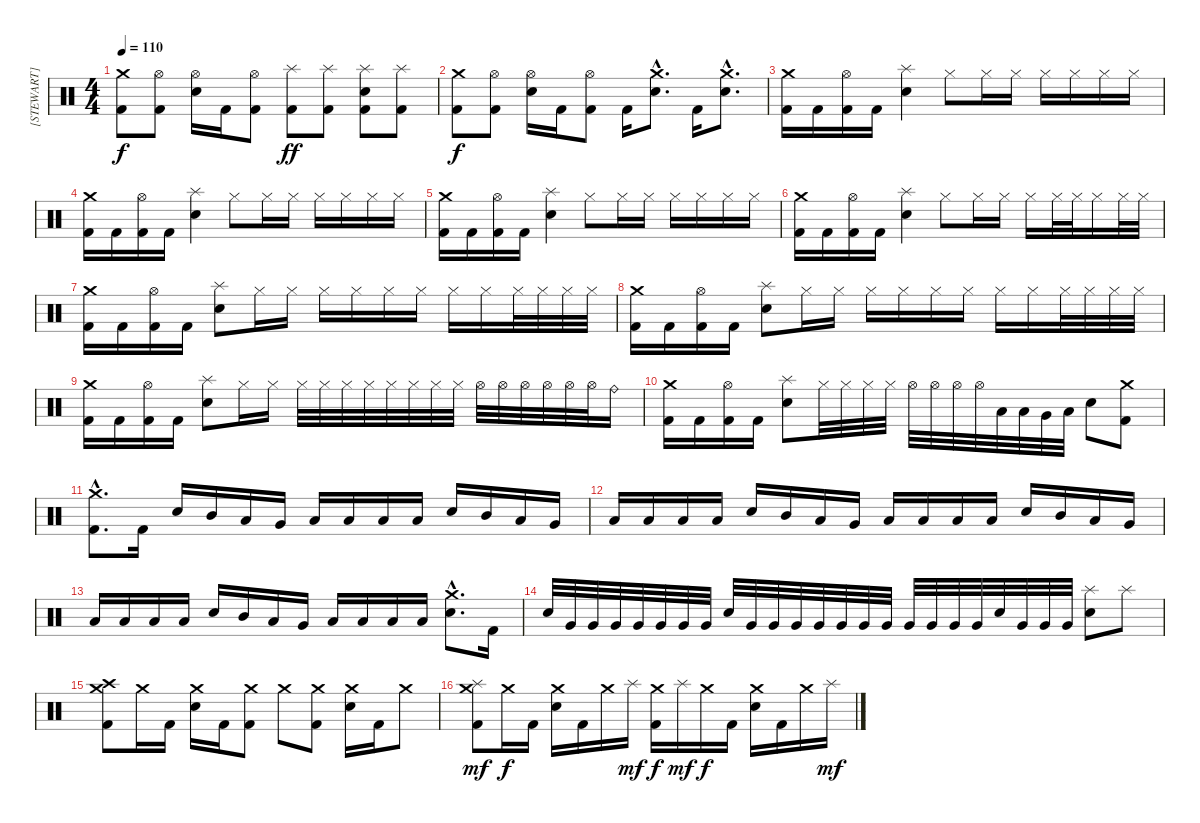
\track ("[STEWART]" "[STEWART]") {instrument percussion}
\staff {score}
\articulation defaults
\ts (4 4)
\tempo 110
\clef neutral
\ks c
("Crash medium (hit)" "Kick (hit) 2").8{dy f} ("Hi-Hat (open)" "Kick (hit) 2").8 ("Hi-Hat (open)" "Electric Snare (hit)").16 "Kick (hit) 2".16 ("Hi-Hat (open)" "Kick (hit) 2").8 ("Splash (hit)" "Kick (hit) 2").8{dy ff} ("Splash (hit)" "Kick (hit) 2").8 ("Splash (hit)" "Electric Snare (hit)" "Kick (hit) 2").8 ("Splash (hit)" "Kick (hit) 2").8 |
("Crash medium (hit)" "Kick (hit) 2").8{dy f} ("Hi-Hat (open)" "Kick (hit) 2").8 ("Hi-Hat (open)" "Electric Snare (hit)").16 "Kick (hit) 2".16 ("Hi-Hat (open)" "Kick (hit) 2").8 "Kick (hit) 2".16 ("Crash medium (hit)"{hac} "Electric Snare (hit)"{hac}).8{d} "Kick (hit) 2".16 ("Crash medium (hit)"{hac} "Electric Snare (hit)"{hac}).8{d} |
("Crash medium (hit)" "Kick (hit) 2").16 "Kick (hit) 2".16 ("Hi-Hat (open)" "Kick (hit) 2").16 "Kick (hit) 2".16 ("Splash (hit)" "Electric Snare (hit)").4 "Hi-Hat (closed)".8 "Hi-Hat (closed)".16 "Hi-Hat (closed)".16 "Hi-Hat (closed)".16 "Hi-Hat (closed)".16 "Hi-Hat (closed)".16 "Hi-Hat (closed)".16 |
("Crash medium (hit)" "Kick (hit) 2").16 "Kick (hit) 2".16 ("Hi-Hat (open)" "Kick (hit) 2").16 "Kick (hit) 2".16 ("Splash (hit)" "Electric Snare (hit)").4 "Hi-Hat (closed)".8 "Hi-Hat (closed)".16 "Hi-Hat (closed)".16 "Hi-Hat (closed)".16 "Hi-Hat (closed)".16 "Hi-Hat (closed)".16 "Hi-Hat (closed)".16 |
("Crash medium (hit)" "Kick (hit) 2").16 "Kick (hit) 2".16 ("Hi-Hat (open)" "Kick (hit) 2").16 "Kick (hit) 2".16 ("Splash (hit)" "Electric Snare (hit)").4 "Hi-Hat (closed)".8 "Hi-Hat (closed)".16 "Hi-Hat (closed)".16 "Hi-Hat (closed)".16 "Hi-Hat (closed)".16 "Hi-Hat (closed)".16 "Hi-Hat (closed)".16 |
("Crash medium (hit)" "Kick (hit) 2").16 "Kick (hit) 2".16 ("Hi-Hat (open)" "Kick (hit) 2").16 "Kick (hit) 2".16 ("Splash (hit)" "Electric Snare (hit)").4 "Hi-Hat (closed)".8 "Hi-Hat (closed)".16 "Hi-Hat (closed)".16 "Hi-Hat (closed)".16 "Hi-Hat (closed)".32 "Hi-Hat (closed)".32 "Hi-Hat (closed)".16 "Hi-Hat (closed)".32 "Hi-Hat (closed)".32 |
("Crash medium (hit)" "Kick (hit) 2").16 "Kick (hit) 2".16 ("Hi-Hat (open)" "Kick (hit) 2").16 "Kick (hit) 2".16 ("Splash (hit)" "Electric Snare (hit)").8 "Hi-Hat (closed)".16 "Hi-Hat (closed)".16 "Hi-Hat (closed)".16 "Hi-Hat (closed)".16 "Hi-Hat (closed)".16 "Hi-Hat (closed)".16 "Hi-Hat (closed)".16 "Hi-Hat (closed)".16 "Hi-Hat (closed)".32 "Hi-Hat (closed)".32 "Hi-Hat (closed)".32 "Hi-Hat (closed)".32 |
("Crash medium (hit)" "Kick (hit) 2").16 "Kick (hit) 2".16 ("Hi-Hat (open)" "Kick (hit) 2").16 "Kick (hit) 2".16 ("Splash (hit)" "Electric Snare (hit)").8 "Hi-Hat (closed)".16 "Hi-Hat (closed)".16 "Hi-Hat (closed)".16 "Hi-Hat (closed)".16 "Hi-Hat (closed)".16 "Hi-Hat (closed)".16 "Hi-Hat (closed)".16 "Hi-Hat (closed)".16 "Hi-Hat (closed)".32 "Hi-Hat (closed)".32 "Hi-Hat (closed)".32 "Hi-Hat (closed)".32 |
("Crash medium (hit)" "Kick (hit) 2").16 "Kick (hit) 2".16 ("Hi-Hat (open)" "Kick (hit) 2").16 "Kick (hit) 2".16 ("Splash (hit)" "Electric Snare (hit)").8 "Hi-Hat (closed)".16 "Hi-Hat (closed)".16 "Hi-Hat (closed)".32 "Hi-Hat (closed)".32 "Hi-Hat (closed)".32 "Hi-Hat (closed)".32 "Hi-Hat (closed)".32 "Hi-Hat (closed)".32 "Hi-Hat (closed)".32 "Hi-Hat (closed)".32 "Hi-Hat (open)".32 "Hi-Hat (open)".32 "Hi-Hat (open)".32 "Hi-Hat (open)".32 "Hi-Hat (open)".32 "Hi-Hat (open)".32 "Ride (bell)".16 |
("Crash medium (hit)" "Kick (hit) 2").16 "Kick (hit) 2".16 ("Hi-Hat (open)" "Kick (hit) 2").16 "Kick (hit) 2".16 ("Splash (hit)" "Electric Snare (hit)").8 "Hi-Hat (closed)".32 "Hi-Hat (closed)".32 "Hi-Hat (closed)".32 "Hi-Hat (closed)".32 "Hi-Hat (open)".32 "Hi-Hat (open)".32 "Hi-Hat (open)".32 "Hi-Hat (open)".32 "Low Tom (hit)".32 "Low Tom (hit)".32 "Very Low Tom (hit)".32 "Low Floor Tom (hit)".32 "Electric Snare (hit)".8 ("Crash medium (hit)" "Kick (hit) 2").8 |
("Crash medium (hit)"{hac} "Kick (hit) 2"{hac}).8{d} "Kick (hit) 2".16 "Electric Snare (hit)".16 "Mid Tom (hit)".16 "Low Tom (hit)".16 "Very Low Tom (hit)".16 "Low Floor Tom (hit)".16 "Low Floor Tom (hit)".16 "Low Floor Tom (hit)".16 "Low Floor Tom (hit)".16 "Electric Snare (hit)".16 "Mid Tom (hit)".16 "Low Tom (hit)".16 "Very Low Tom (hit)".16 |
"Low Floor Tom (hit)".16 "Low Floor Tom (hit)".16 "Low Floor Tom (hit)".16 "Low Floor Tom (hit)".16 "Electric Snare (hit)".16 "Mid Tom (hit)".16 "Low Tom (hit)".16 "Very Low Tom (hit)".16 "Low Floor Tom (hit)".16 "Low Floor Tom (hit)".16 "Low Floor Tom (hit)".16 "Low Floor Tom (hit)".16 "Electric Snare (hit)".16 "Mid Tom (hit)".16 "Low Tom (hit)".16 "Very Low Tom (hit)".16 |
"Low Floor Tom (hit)".16 "Low Floor Tom (hit)".16 "Low Floor Tom (hit)".16 "Low Floor Tom (hit)".16 "Electric Snare (hit)".16 "Mid Tom (hit)".16 "Low Tom (hit)".16 "Very Low Tom (hit)".16 "Low Floor Tom (hit)".16 "Low Floor Tom (hit)".16 "Low Floor Tom (hit)".16 "Low Floor Tom (hit)".16 ("Crash medium (hit)"{hac} "Electric Snare (hit)"{hac}).8{d} "Kick (hit) 2".16 |
"Electric Snare (hit)".32 "Very Low Tom (hit)".32 "Very Low Tom (hit)".32 "Very Low Tom (hit)".32 "Very Low Tom (hit)".32 "Very Low Tom (hit)".32 "Very Low Tom (hit)".32 "Very Low Tom (hit)".32 "Electric Snare (hit)".32 "Very Low Tom (hit)".32 "Very Low Tom (hit)".32 "Very Low Tom (hit)".32 "Very Low Tom (hit)".32 "Very Low Tom (hit)".32 "Very Low Tom (hit)".32 "Very Low Tom (hit)".32 "Very Low Tom (hit)".32 "Very Low Tom (hit)".32 "Very Low Tom (hit)".32 "Very Low Tom (hit)".32 "Electric Snare (hit)".32 "Very Low Tom (hit)".32 "Very Low Tom (hit)".32 "Very Low Tom (hit)".32 ("Splash (hit)" "Electric Snare (hit)").8 "Splash (hit)".8 |
("Crash medium (hit)" "Crash high (hit)" "Kick (hit) 2").8 "Crash medium (hit)".16 "Kick (hit) 2".16 ("Crash medium (hit)" "Electric Snare (hit)").16 "Kick (hit) 2".16 ("Crash medium (hit)" "Kick (hit) 2").8 "Crash medium (hit)".8 ("Crash medium (hit)" "Kick (hit) 2").8 ("Crash medium (hit)" "Electric Snare (hit)").16 "Kick (hit) 2".16 "Crash medium (hit)".8 |
("Crash medium (hit)" "Splash (hit)" "Kick (hit) 2").8{dy mf} "Crash medium (hit)".16{dy f} "Kick (hit) 2".16 ("Crash medium (hit)" "Electric Snare (hit)").16 "Kick (hit) 2".16 "Crash medium (hit)".16 "Splash (hit)".16{dy mf} ("Crash medium (hit)" "Kick (hit) 2").16{dy f} "Splash (hit)".16{dy mf} "Crash medium (hit)".16{dy f} "Kick (hit) 2".16 ("Crash medium (hit)" "Electric Snare (hit)").16 "Kick (hit) 2".16 "Crash medium (hit)".16 "Splash (hit)".16{dy mf}
